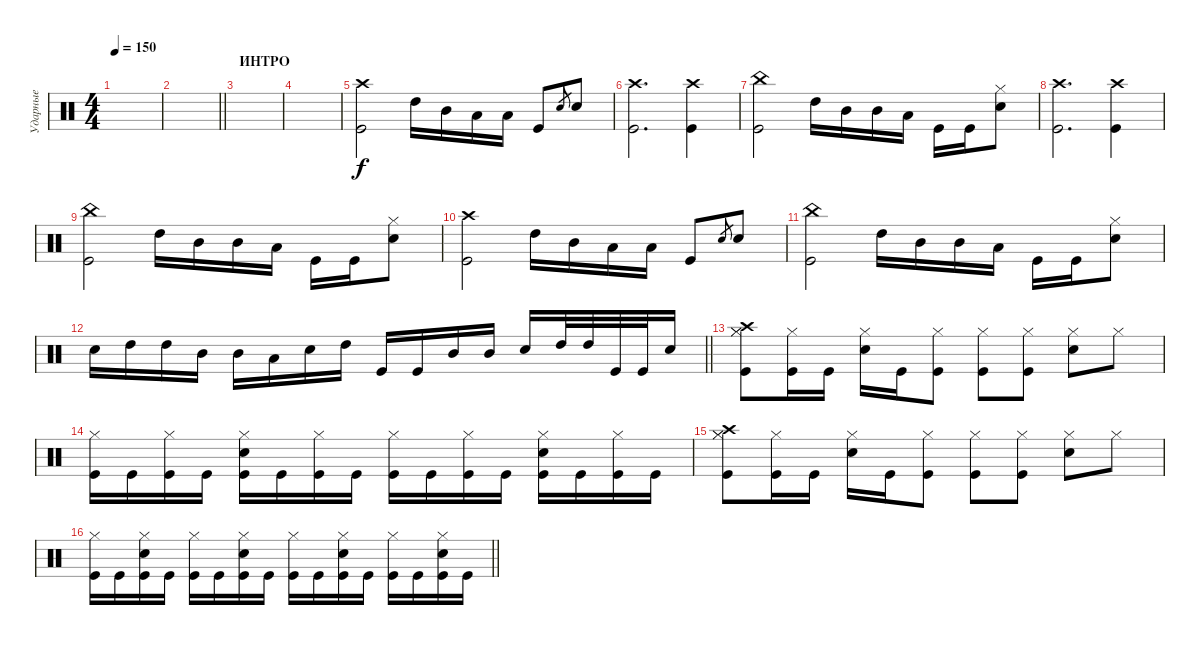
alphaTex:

\track ("Ударные" "Ударные") {instrument percussion}
\staff {score}
\articulation defaults
\ts (4 4)
\tempo 150
\clef neutral
\ks c
|
\barLineRight lightlight
|
\section ("" "ИНТРО")
|
|
("Kick (hit)" "Crash high (hit)").2 "High Tom (hit)".16 "Mid Tom (hit)".16 "Low Tom (hit)".16 "Low Tom (hit)".16 "Kick (hit)".8 "Snare (hit) 2".8{gr} "Snare (hit) 2".8 |
("Kick (hit)" "Crash high (hit)").2{d} ("Crash high (hit)" "Kick (hit)").4 |
("China (hit)" "Kick (hit)").2 "High Tom (hit)".16 "Mid Tom (hit)".16 "Mid Tom (hit)".16 "Low Tom (hit)".16 "Kick (hit)".16 "Kick (hit)".16 ("Hi-Hat (closed)" "Snare (hit) 2").8 |
("Kick (hit)" "Crash high (hit)").2{d} ("Crash high (hit)" "Kick (hit)").4 |
("China (hit)" "Kick (hit)").2 "High Tom (hit)".16 "Mid Tom (hit)".16 "Mid Tom (hit)".16 "Low Tom (hit)".16 "Kick (hit)".16 "Kick (hit)".16 ("Hi-Hat (closed)" "Snare (hit) 2").8 |
("Kick (hit)" "Crash high (hit)").2 "High Tom (hit)".16 "Mid Tom (hit)".16 "Low Tom (hit)".16 "Low Tom (hit)".16 "Kick (hit)".8 "Snare (hit) 2".8{gr} "Snare (hit) 2".8 |
("China (hit)" "Kick (hit)").2 "High Tom (hit)".16 "Mid Tom (hit)".16 "Mid Tom (hit)".16 "Low Tom (hit)".16 "Kick (hit)".16 "Kick (hit)".16 ("Hi-Hat (closed)" "Snare (hit) 2").8 |
\barLineRight lightlight "Snare (hit) 2".16 "High Tom (hit)".16 "High Tom (hit)".16 "Mid Tom (hit)".16 "Mid Tom (hit)".16 "Low Tom (hit)".16 "Snare (hit) 2".16 "High Tom (hit)".16 "Kick (hit)".16 "Kick (hit)".16 "Mid Tom (hit)".16 "Mid Tom (hit)".16 "Snare (hit) 2".16 "High Tom (hit)".32 "High Tom (hit)".32 "Kick (hit)".32 "Kick (hit)".32 "Snare (hit) 2".16
|
("Crash high (hit)" "Kick (hit)" "Hi-Hat (closed)" "Hi-Hat (closed)").8 ("Kick (hit)" "Hi-Hat (closed)").16 "Kick (hit)".16 ("Snare (hit) 2" "Hi-Hat (closed)").16 "Kick (hit)".16 ("Hi-Hat (closed)" "Kick (hit)").8 ("Kick (hit)" "Hi-Hat (closed)").8 ("Hi-Hat (closed)" "Kick (hit)").8 ("Hi-Hat (closed)" "Snare (hit) 2").8 "Hi-Hat (closed)".8 |
("Hi-Hat (closed)" "Kick (hit)").16 "Kick (hit)".16 ("Kick (hit)" "Hi-Hat (closed)").16 "Kick (hit)".16 ("Kick (hit)" "Hi-Hat (closed)" "Snare (hit) 2").16 "Kick (hit)".16 ("Kick (hit)" "Hi-Hat (closed)").16 "Kick (hit)".16 ("Kick (hit)" "Hi-Hat (closed)").16 "Kick (hit)".16 ("Kick (hit)" "Hi-Hat (closed)").16 "Kick (hit)".16 ("Kick (hit)" "Hi-Hat (closed)" "Snare (hit) 2").16 "Kick (hit)".16 ("Kick (hit)" "Hi-Hat (closed)").16 "Kick (hit)".16 |
("Crash high (hit)" "Kick (hit)" "Hi-Hat (closed)" "Hi-Hat (closed)").8 ("Kick (hit)" "Hi-Hat (closed)").16 "Kick (hit)".16 ("Snare (hit) 2" "Hi-Hat (closed)").16 "Kick (hit)".16 ("Hi-Hat (closed)" "Kick (hit)").8 ("Kick (hit)" "Hi-Hat (closed)").8 ("Hi-Hat (closed)" "Kick (hit)").8 ("Hi-Hat (closed)" "Snare (hit) 2").8 "Hi-Hat (closed)".8 |
\barLineRight lightlight
("Hi-Hat (closed)" "Kick (hit)").16 "Kick (hit)".16 ("Kick (hit)" "Hi-Hat (closed)" "Snare (hit) 2").16 "Kick (hit)".16 ("Kick (hit)" "Hi-Hat (closed)").16 "Kick (hit)".16 ("Kick (hit)" "Snare (hit) 2" "Hi-Hat (closed)").16 "Kick (hit)".16 ("Kick (hit)" "Hi-Hat (closed)").16 "Kick (hit)".16 ("Kick (hit)" "Hi-Hat (closed)" "Snare (hit) 2").16 "Kick (hit)".16 ("Kick (hit)" "Hi-Hat (closed)").16 "Kick (hit)".16 ("Kick (hit)" "Hi-Hat (closed)" "Snare (hit) 2").16 "Kick (hit)".16
